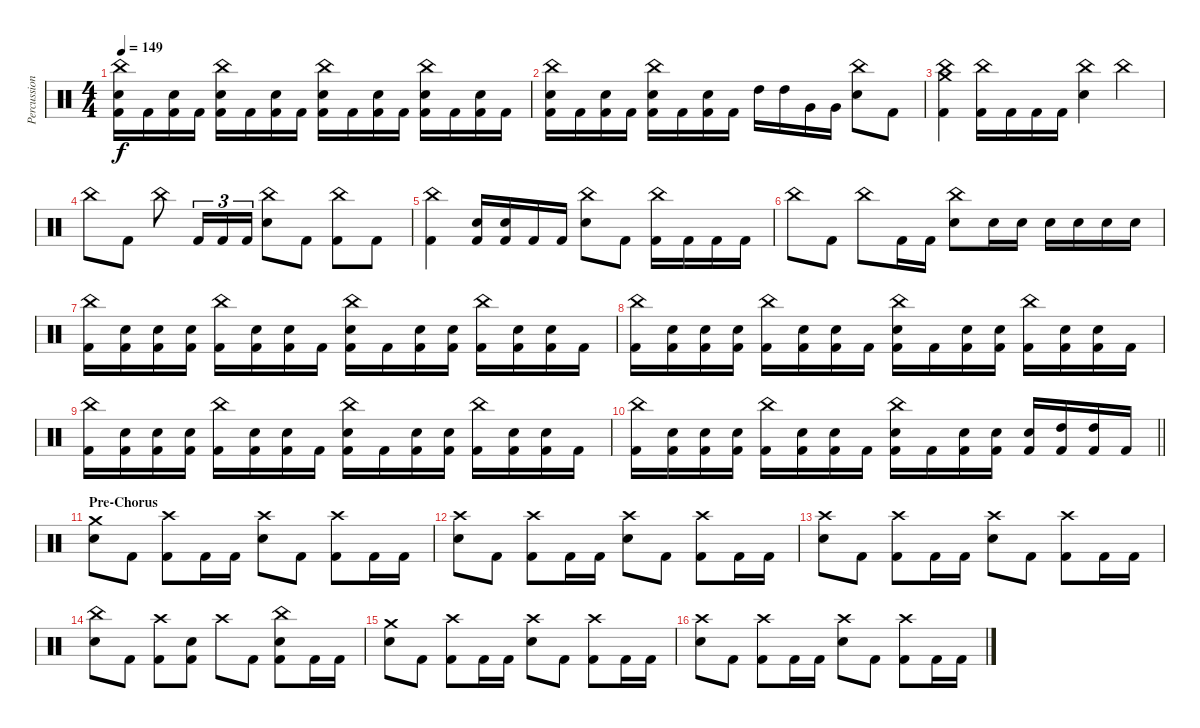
\track ("Percussions" "Percussion") {instrument percussion}
\staff {score}
\articulation defaults
\ts (4 4)
\tempo 149
\clef neutral
\ks c
("China (hit)" "Snare (hit) 2" "Kick (hit) 2").16{dy f} "Kick (hit) 2".16 ("Snare (hit) 2" "Kick (hit) 2").16 "Kick (hit) 2".16 ("China (hit)" "Snare (hit) 2" "Kick (hit) 2").16 "Kick (hit) 2".16 ("Snare (hit) 2" "Kick (hit) 2").16 "Kick (hit) 2".16 ("China (hit)" "Snare (hit) 2" "Kick (hit) 2").16 "Kick (hit) 2".16 ("Snare (hit) 2" "Kick (hit) 2").16 "Kick (hit) 2".16 ("China (hit)" "Snare (hit) 2" "Kick (hit) 2").16 "Kick (hit) 2".16 ("Snare (hit) 2" "Kick (hit) 2").16 "Kick (hit) 2".16 |
("China (hit)" "Snare (hit) 2" "Kick (hit) 2").16 "Kick (hit) 2".16 ("Snare (hit) 2" "Kick (hit) 2").16 "Kick (hit) 2".16 ("China (hit)" "Snare (hit) 2" "Kick (hit) 2").16 "Kick (hit) 2".16 ("Snare (hit) 2" "Kick (hit) 2").16 "Kick (hit) 2".16 "High Tom (hit)".16 "High Tom (hit)".16 "Very Low Tom (hit)".16 "Very Low Tom (hit)".16 ("China (hit)" "Snare (hit) 2").8 "Kick (hit) 2".8 |
("Crash medium (hit)" "China (hit)" "Kick (hit) 2").4 ("China (hit)" "Kick (hit) 2").16 "Kick (hit) 2".16 "Kick (hit) 2".16 "Kick (hit) 2".16 ("China (hit)" "Snare (hit) 2").4 "China (hit)".4 |
"China (hit)".8 "Kick (hit) 2".8 "China (hit)".8 "Kick (hit) 2".16{tu (3 2)} "Kick (hit) 2".16{tu (3 2)} "Kick (hit) 2".16{tu (3 2)} ("China (hit)" "Snare (hit) 2").8 "Kick (hit) 2".8 ("China (hit)" "Kick (hit) 2").8 "Kick (hit) 2".8 |
("China (hit)" "Kick (hit) 2").4 ("Snare (hit) 2" "Kick (hit) 2").16 ("Snare (hit) 2" "Kick (hit) 2").16 "Kick (hit) 2".16 "Kick (hit) 2".16 ("China (hit)" "Snare (hit) 2").8 "Kick (hit) 2".8 ("China (hit)" "Kick (hit) 2").16 "Kick (hit) 2".16 "Kick (hit) 2".16 "Kick (hit) 2".16 |
"China (hit)".8 "Kick (hit) 2".8 "China (hit)".8 "Kick (hit) 2".16 "Kick (hit) 2".16 ("China (hit)" "Snare (hit) 2").8 "Snare (hit) 2".16 "Snare (hit) 2".16 "Snare (hit) 2".16 "Snare (hit) 2".16 "Snare (hit) 2".16 "Snare (hit) 2".16 |
("China (hit)" "Kick (hit) 2").16 ("Snare (hit) 2" "Kick (hit) 2").16 ("Snare (hit) 2" "Kick (hit) 2").16 ("Snare (hit) 2" "Kick (hit) 2").16 ("China (hit)" "Kick (hit) 2").16 ("Snare (hit) 2" "Kick (hit) 2").16 ("Snare (hit) 2" "Kick (hit) 2").16 "Kick (hit) 2".16 ("China (hit)" "Snare (hit) 2" "Kick (hit) 2").16 "Kick (hit) 2".16 ("Snare (hit) 2" "Kick (hit) 2").16 ("Snare (hit) 2" "Kick (hit) 2").16 ("China (hit)" "Kick (hit) 2").16 ("Snare (hit) 2" "Kick (hit) 2").16 ("Snare (hit) 2" "Kick (hit) 2").16 "Kick (hit) 2".16 |
("China (hit)" "Kick (hit) 2").16 ("Snare (hit) 2" "Kick (hit) 2").16 ("Snare (hit) 2" "Kick (hit) 2").16 ("Snare (hit) 2" "Kick (hit) 2").16 ("China (hit)" "Kick (hit) 2").16 ("Snare (hit) 2" "Kick (hit) 2").16 ("Snare (hit) 2" "Kick (hit) 2").16 "Kick (hit) 2".16 ("China (hit)" "Snare (hit) 2" "Kick (hit) 2").16 "Kick (hit) 2".16 ("Snare (hit) 2" "Kick (hit) 2").16 ("Snare (hit) 2" "Kick (hit) 2").16 ("China (hit)" "Kick (hit) 2").16 ("Snare (hit) 2" "Kick (hit) 2").16 ("Snare (hit) 2" "Kick (hit) 2").16 "Kick (hit) 2".16 |
("China (hit)" "Kick (hit) 2").16 ("Snare (hit) 2" "Kick (hit) 2").16 ("Snare (hit) 2" "Kick (hit) 2").16 ("Snare (hit) 2" "Kick (hit) 2").16 ("China (hit)" "Kick (hit) 2").16 ("Snare (hit) 2" "Kick (hit) 2").16 ("Snare (hit) 2" "Kick (hit) 2").16 "Kick (hit) 2".16 ("China (hit)" "Snare (hit) 2" "Kick (hit) 2").16 "Kick (hit) 2".16 ("Snare (hit) 2" "Kick (hit) 2").16 ("Snare (hit) 2" "Kick (hit) 2").16 ("China (hit)" "Kick (hit) 2").16 ("Snare (hit) 2" "Kick (hit) 2").16 ("Snare (hit) 2" "Kick (hit) 2").16 "Kick (hit) 2".16 |
\barLineRight lightlight
("China (hit)" "Kick (hit) 2").16 ("Snare (hit) 2" "Kick (hit) 2").16 ("Snare (hit) 2" "Kick (hit) 2").16 ("Snare (hit) 2" "Kick (hit) 2").16 ("China (hit)" "Kick (hit) 2").16 ("Snare (hit) 2" "Kick (hit) 2").16 ("Snare (hit) 2" "Kick (hit) 2").16 "Kick (hit) 2".16 ("China (hit)" "Snare (hit) 2" "Kick (hit) 2").16 "Kick (hit) 2".16 ("Snare (hit) 2" "Kick (hit) 2").16 ("Snare (hit) 2" "Kick (hit) 2").16 ("Snare (hit) 2" "Kick (hit) 2").16 ("High Tom (hit)" "Kick (hit) 2").16 ("High Tom (hit)" "Kick (hit) 2").16 "Kick (hit) 2".16 |
\section ("" "Pre-Chorus")
("Crash medium (hit)" "Snare (hit) 2").8 "Kick (hit) 2".8 ("Crash high (hit)" "Kick (hit) 2").8 "Kick (hit) 2".16 "Kick (hit) 2".16 ("Crash high (hit)" "Snare (hit) 2").8 "Kick (hit) 2".8 ("Crash high (hit)" "Kick (hit) 2").8 "Kick (hit) 2".16 "Kick (hit) 2".16 |
("Crash high (hit)" "Snare (hit) 2").8 "Kick (hit) 2".8 ("Crash high (hit)" "Kick (hit) 2").8 "Kick (hit) 2".16 "Kick (hit) 2".16 ("Crash high (hit)" "Snare (hit) 2").8 "Kick (hit) 2".8 ("Crash high (hit)" "Kick (hit) 2").8 "Kick (hit) 2".16 "Kick (hit) 2".16 |
("Crash high (hit)" "Snare (hit) 2").8 "Kick (hit) 2".8 ("Crash high (hit)" "Kick (hit) 2").8 "Kick (hit) 2".16 "Kick (hit) 2".16 ("Crash high (hit)" "Snare (hit) 2").8 "Kick (hit) 2".8 ("Crash high (hit)" "Kick (hit) 2").8 "Kick (hit) 2".16 "Kick (hit) 2".16 |
("China (hit)" "Snare (hit) 2").8 "Kick (hit) 2".8 ("Crash high (hit)" "Kick (hit) 2").8 ("Snare (hit) 2" "Kick (hit) 2").8 "Crash high (hit)".8 "Kick (hit) 2".8 ("China (hit)" "Snare (hit) 2" "Kick (hit) 2").8 "Kick (hit) 2".16 "Kick (hit) 2".16 |
("Crash medium (hit)" "Snare (hit) 2").8 "Kick (hit) 2".8 ("Crash high (hit)" "Kick (hit) 2").8 "Kick (hit) 2".16 "Kick (hit) 2".16 ("Crash high (hit)" "Snare (hit) 2").8 "Kick (hit) 2".8 ("Crash high (hit)" "Kick (hit) 2").8 "Kick (hit) 2".16 "Kick (hit) 2".16 |
("Crash high (hit)" "Snare (hit) 2").8 "Kick (hit) 2".8 ("Crash high (hit)" "Kick (hit) 2").8 "Kick (hit) 2".16 "Kick (hit) 2".16 ("Crash high (hit)" "Snare (hit) 2").8 "Kick (hit) 2".8 ("Crash high (hit)" "Kick (hit) 2").8 "Kick (hit) 2".16 "Kick (hit) 2".16
